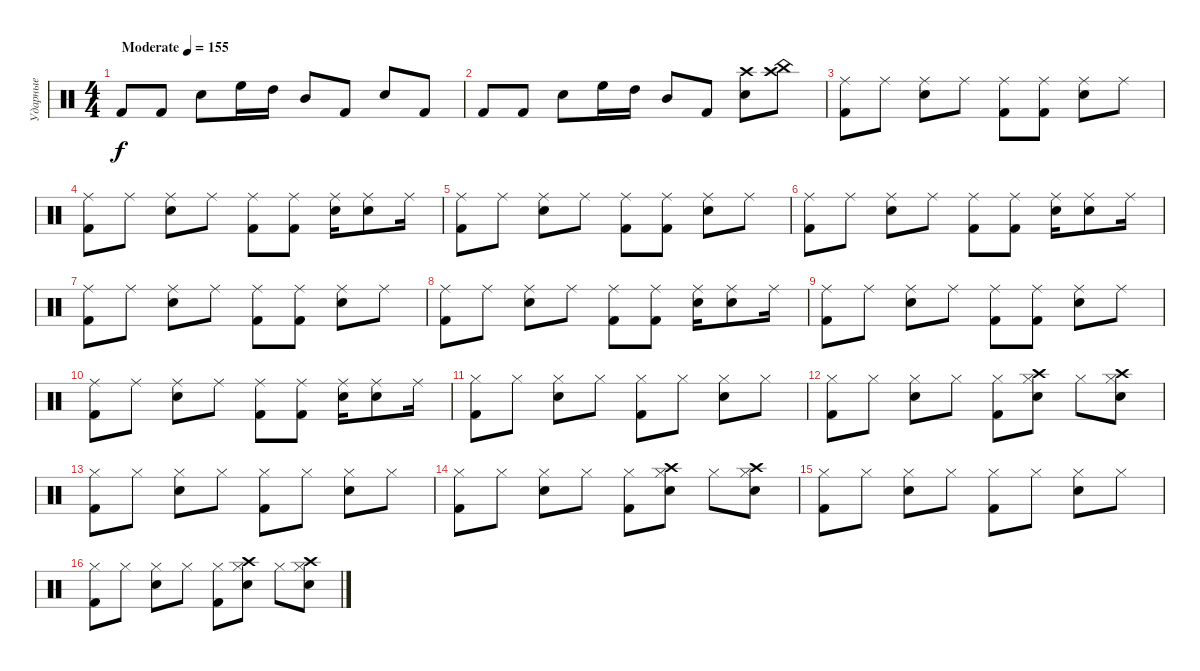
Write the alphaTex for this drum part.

\track ("Ударные" "Ударные") {solo instrument percussion}
\staff {score}
\articulation defaults
\ts (4 4)
\tempo (155 "Moderate")
\clef neutral
\ks c "Kick (hit) 2".8{dy f} "Kick (hit) 2".8 "Snare (hit) 2".8 "High Floor Tom (hit)".16 "High Tom (hit)".16 "Mid Tom (hit)".8 "Kick (hit) 2".8 "Snare (hit) 2".8 "Kick (hit) 2".8
|
"Kick (hit) 2".8 "Kick (hit) 2".8 "Snare (hit) 2".8 "High Floor Tom (hit)".16 "High Tom (hit)".16 "Mid Tom (hit)".8 "Kick (hit) 2".8 ("Snare (hit) 2" "Crash high (hit)").8 ("China (hit)" "Crash high (hit)").8 |
("Ride (middle)" "Kick (hit) 2").8 "Ride (middle)".8 ("Ride (middle)" "Snare (hit) 2").8 "Ride (middle)".8 ("Ride (middle)" "Kick (hit) 2").8 ("Ride (middle)" "Kick (hit) 2").8 ("Ride (middle)" "Snare (hit) 2").8 "Ride (middle)".8 |
("Ride (middle)" "Kick (hit) 2").8 "Ride (middle)".8 ("Ride (middle)" "Snare (hit) 2").8 "Ride (middle)".8 ("Ride (middle)" "Kick (hit) 2").8 ("Ride (middle)" "Kick (hit) 2").8 ("Ride (middle)" "Snare (hit) 2").16 ("Ride (middle)" "Snare (hit) 2").8 "Ride (middle)".16 |
("Ride (middle)" "Kick (hit) 2").8 "Ride (middle)".8 ("Ride (middle)" "Snare (hit) 2").8 "Ride (middle)".8 ("Ride (middle)" "Kick (hit) 2").8 ("Ride (middle)" "Kick (hit) 2").8 ("Ride (middle)" "Snare (hit) 2").8 "Ride (middle)".8 |
("Ride (middle)" "Kick (hit) 2").8 "Ride (middle)".8 ("Ride (middle)" "Snare (hit) 2").8 "Ride (middle)".8 ("Ride (middle)" "Kick (hit) 2").8 ("Ride (middle)" "Kick (hit) 2").8 ("Ride (middle)" "Snare (hit) 2").16 ("Ride (middle)" "Snare (hit) 2").8 "Ride (middle)".16 |
("Ride (middle)" "Kick (hit) 2").8 "Ride (middle)".8 ("Ride (middle)" "Snare (hit) 2").8 "Ride (middle)".8 ("Ride (middle)" "Kick (hit) 2").8 ("Ride (middle)" "Kick (hit) 2").8 ("Ride (middle)" "Snare (hit) 2").8 "Ride (middle)".8 |
("Ride (middle)" "Kick (hit) 2").8 "Ride (middle)".8 ("Ride (middle)" "Snare (hit) 2").8 "Ride (middle)".8 ("Ride (middle)" "Kick (hit) 2").8 ("Ride (middle)" "Kick (hit) 2").8 ("Ride (middle)" "Snare (hit) 2").16 ("Ride (middle)" "Snare (hit) 2").8 "Ride (middle)".16 |
("Ride (middle)" "Kick (hit) 2").8 "Ride (middle)".8 ("Ride (middle)" "Snare (hit) 2").8 "Ride (middle)".8 ("Ride (middle)" "Kick (hit) 2").8 ("Ride (middle)" "Kick (hit) 2").8 ("Ride (middle)" "Snare (hit) 2").8 "Ride (middle)".8 |
("Ride (middle)" "Kick (hit) 2").8 "Ride (middle)".8 ("Ride (middle)" "Snare (hit) 2").8 "Ride (middle)".8 ("Ride (middle)" "Kick (hit) 2").8 ("Ride (middle)" "Kick (hit) 2").8 ("Ride (middle)" "Snare (hit) 2").16 ("Ride (middle)" "Snare (hit) 2").8 "Ride (middle)".16 |
("Hi-Hat (closed)" "Kick (hit) 2").8 "Hi-Hat (closed)".8 ("Hi-Hat (closed)" "Snare (hit) 2").8 "Hi-Hat (closed)".8 ("Hi-Hat (closed)" "Kick (hit) 2").8 "Hi-Hat (closed)".8 ("Hi-Hat (closed)" "Snare (hit) 2").8 "Hi-Hat (closed)".8 |
("Hi-Hat (closed)" "Kick (hit) 2").8 "Hi-Hat (closed)".8 ("Hi-Hat (closed)" "Snare (hit) 2").8 "Hi-Hat (closed)".8 ("Hi-Hat (closed)" "Kick (hit) 2").8 ("Hi-Hat (closed)" "Snare (hit) 2" "Crash high (hit)").8 "Hi-Hat (closed)".8 ("Hi-Hat (closed)" "Snare (hit) 2" "Crash high (hit)").8 |
("Hi-Hat (closed)" "Kick (hit) 2").8 "Hi-Hat (closed)".8 ("Hi-Hat (closed)" "Snare (hit) 2").8 "Hi-Hat (closed)".8 ("Hi-Hat (closed)" "Kick (hit) 2").8 "Hi-Hat (closed)".8 ("Hi-Hat (closed)" "Snare (hit) 2").8 "Hi-Hat (closed)".8 |
("Hi-Hat (closed)" "Kick (hit) 2").8 "Hi-Hat (closed)".8 ("Hi-Hat (closed)" "Snare (hit) 2").8 "Hi-Hat (closed)".8 ("Hi-Hat (closed)" "Kick (hit) 2").8 ("Hi-Hat (closed)" "Snare (hit) 2" "Crash high (hit)").8 "Hi-Hat (closed)".8 ("Hi-Hat (closed)" "Snare (hit) 2" "Crash high (hit)").8 |
("Hi-Hat (closed)" "Kick (hit) 2").8 "Hi-Hat (closed)".8 ("Hi-Hat (closed)" "Snare (hit) 2").8 "Hi-Hat (closed)".8 ("Hi-Hat (closed)" "Kick (hit) 2").8 "Hi-Hat (closed)".8 ("Hi-Hat (closed)" "Snare (hit) 2").8 "Hi-Hat (closed)".8 |
("Hi-Hat (closed)" "Kick (hit) 2").8 "Hi-Hat (closed)".8 ("Hi-Hat (closed)" "Snare (hit) 2").8 "Hi-Hat (closed)".8 ("Hi-Hat (closed)" "Kick (hit) 2").8 ("Hi-Hat (closed)" "Snare (hit) 2" "Crash high (hit)").8 "Hi-Hat (closed)".8 ("Hi-Hat (closed)" "Snare (hit) 2" "Crash high (hit)").8
